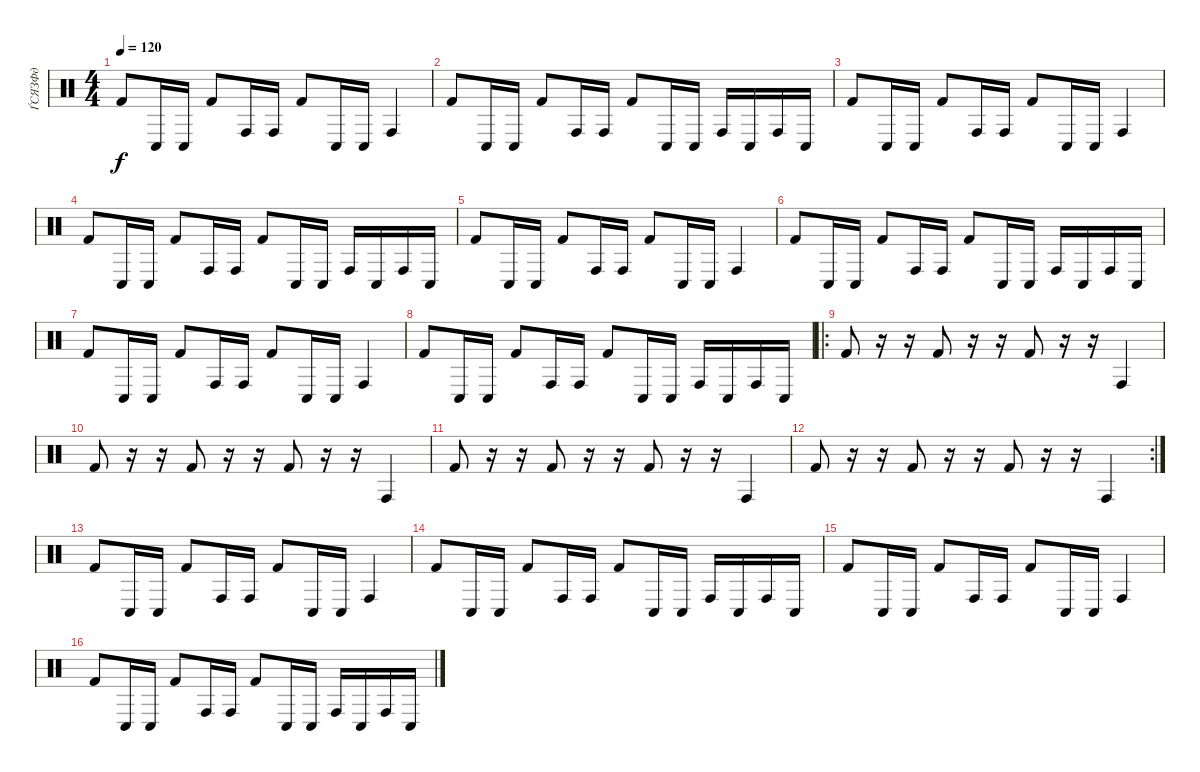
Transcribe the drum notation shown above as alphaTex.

\track ("ЃСЯЗФд" "ЃСЯЗФд") {instrument percussion}
\staff {score}
\articulation defaults
\ts (4 4)
\tempo 120
\clef neutral
\ks aminor "Kick (hit) 2".8{dy f} "Conga low (hit)".16 "Conga low (hit)".16 "Kick (hit) 2".8 "Conga high (hit)".16 "Conga high (hit)".16 "Kick (hit) 2".8 "Conga low (hit)".16 "Conga low (hit)".16 "Conga high (hit)".4
|
"Kick (hit) 2".8 "Conga low (hit)".16 "Conga low (hit)".16 "Kick (hit) 2".8 "Conga high (hit)".16 "Conga high (hit)".16 "Kick (hit) 2".8 "Conga low (hit)".16 "Conga low (hit)".16 "Conga high (hit)".16 "Conga low (hit)".16 "Conga high (hit)".16 "Conga low (hit)".16 |
"Kick (hit) 2".8 "Conga low (hit)".16 "Conga low (hit)".16 "Kick (hit) 2".8 "Conga high (hit)".16 "Conga high (hit)".16 "Kick (hit) 2".8 "Conga low (hit)".16 "Conga low (hit)".16 "Conga high (hit)".4 |
"Kick (hit) 2".8 "Conga low (hit)".16 "Conga low (hit)".16 "Kick (hit) 2".8 "Conga high (hit)".16 "Conga high (hit)".16 "Kick (hit) 2".8 "Conga low (hit)".16 "Conga low (hit)".16 "Conga high (hit)".16 "Conga low (hit)".16 "Conga high (hit)".16 "Conga low (hit)".16 |
"Kick (hit) 2".8 "Conga low (hit)".16 "Conga low (hit)".16 "Kick (hit) 2".8 "Conga high (hit)".16 "Conga high (hit)".16 "Kick (hit) 2".8 "Conga low (hit)".16 "Conga low (hit)".16 "Conga high (hit)".4 |
"Kick (hit) 2".8 "Conga low (hit)".16 "Conga low (hit)".16 "Kick (hit) 2".8 "Conga high (hit)".16 "Conga high (hit)".16 "Kick (hit) 2".8 "Conga low (hit)".16 "Conga low (hit)".16 "Conga high (hit)".16 "Conga low (hit)".16 "Conga high (hit)".16 "Conga low (hit)".16 |
"Kick (hit) 2".8 "Conga low (hit)".16 "Conga low (hit)".16 "Kick (hit) 2".8 "Conga high (hit)".16 "Conga high (hit)".16 "Kick (hit) 2".8 "Conga low (hit)".16 "Conga low (hit)".16 "Conga high (hit)".4 |
"Kick (hit) 2".8 "Conga low (hit)".16 "Conga low (hit)".16 "Kick (hit) 2".8 "Conga high (hit)".16 "Conga high (hit)".16 "Kick (hit) 2".8 "Conga low (hit)".16 "Conga low (hit)".16 "Conga high (hit)".16 "Conga low (hit)".16 "Conga high (hit)".16 "Conga low (hit)".16 |
\ro "Kick (hit) 2".8
r.16 r.16 "Kick (hit) 2".8 r.16 r.16 "Kick (hit) 2".8 r.16 r.16 "Conga high (hit)".4 |
"Kick (hit) 2".8 r.16 r.16 "Kick (hit) 2".8 r.16 r.16 "Kick (hit) 2".8 r.16 r.16 "Conga high (hit)".4 |
"Kick (hit) 2".8 r.16 r.16 "Kick (hit) 2".8 r.16 r.16 "Kick (hit) 2".8 r.16 r.16 "Conga high (hit)".4 |
\rc 2 "Kick (hit) 2".8
r.16 r.16 "Kick (hit) 2".8 r.16 r.16 "Kick (hit) 2".8 r.16 r.16 "Conga high (hit)".4 |
"Kick (hit) 2".8 "Conga low (hit)".16 "Conga low (hit)".16 "Kick (hit) 2".8 "Conga high (hit)".16 "Conga high (hit)".16 "Kick (hit) 2".8 "Conga low (hit)".16 "Conga low (hit)".16 "Conga high (hit)".4 |
"Kick (hit) 2".8 "Conga low (hit)".16 "Conga low (hit)".16 "Kick (hit) 2".8 "Conga high (hit)".16 "Conga high (hit)".16 "Kick (hit) 2".8 "Conga low (hit)".16 "Conga low (hit)".16 "Conga high (hit)".16 "Conga low (hit)".16 "Conga high (hit)".16 "Conga low (hit)".16 |
"Kick (hit) 2".8 "Conga low (hit)".16 "Conga low (hit)".16 "Kick (hit) 2".8 "Conga high (hit)".16 "Conga high (hit)".16 "Kick (hit) 2".8 "Conga low (hit)".16 "Conga low (hit)".16 "Conga high (hit)".4 |
"Kick (hit) 2".8 "Conga low (hit)".16 "Conga low (hit)".16 "Kick (hit) 2".8 "Conga high (hit)".16 "Conga high (hit)".16 "Kick (hit) 2".8 "Conga low (hit)".16 "Conga low (hit)".16 "Conga high (hit)".16 "Conga low (hit)".16 "Conga high (hit)".16 "Conga low (hit)".16
